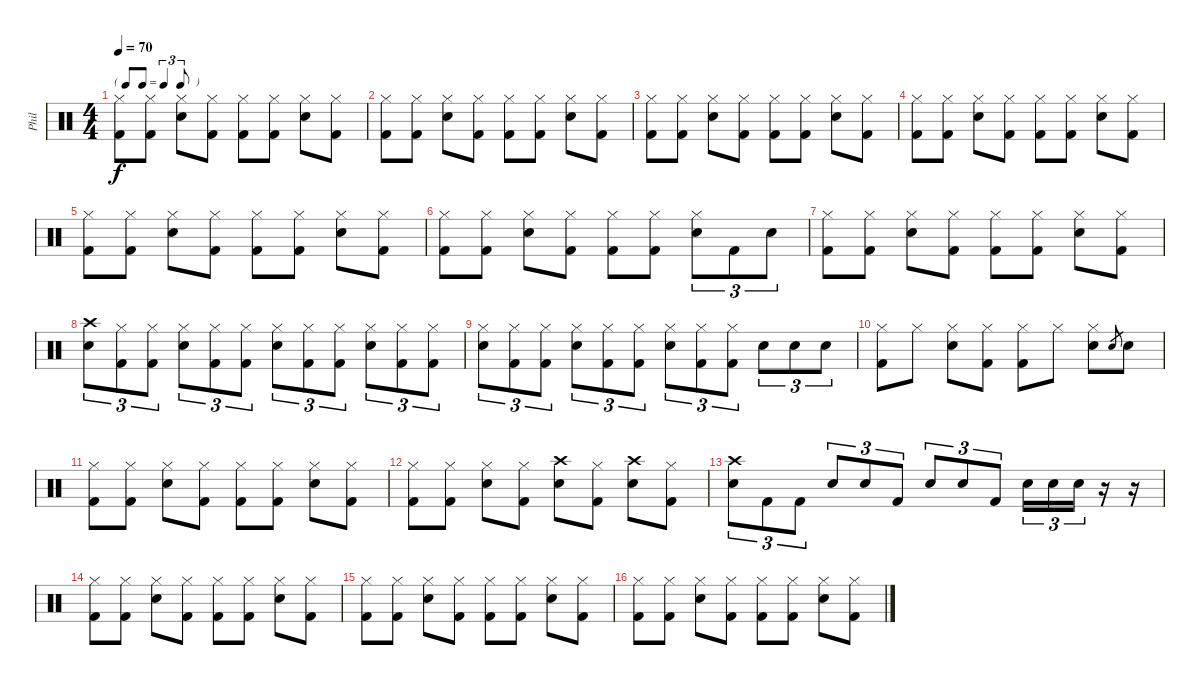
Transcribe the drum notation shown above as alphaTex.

\track ("Phil" "Phil") {instrument percussion}
\staff {score}
\articulation defaults
\ts (4 4)
\tf triplet8th
\tempo 70
\clef neutral
\ks c
("Hi-Hat (closed)" "Kick (hit) 2").8{dy f} ("Hi-Hat (closed)" "Kick (hit) 2").8 ("Hi-Hat (closed)" "Snare (hit) 2").8 ("Hi-Hat (closed)" "Kick (hit) 2").8 ("Hi-Hat (closed)" "Kick (hit) 2").8 ("Hi-Hat (closed)" "Kick (hit) 2").8 ("Hi-Hat (closed)" "Snare (hit) 2").8 ("Hi-Hat (closed)" "Kick (hit) 2").8 |
("Hi-Hat (closed)" "Kick (hit) 2").8 ("Hi-Hat (closed)" "Kick (hit) 2").8 ("Hi-Hat (closed)" "Snare (hit) 2").8 ("Hi-Hat (closed)" "Kick (hit) 2").8 ("Hi-Hat (closed)" "Kick (hit) 2").8 ("Hi-Hat (closed)" "Kick (hit) 2").8 ("Hi-Hat (closed)" "Snare (hit) 2").8 ("Hi-Hat (closed)" "Kick (hit) 2").8 |
("Hi-Hat (closed)" "Kick (hit) 2").8 ("Hi-Hat (closed)" "Kick (hit) 2").8 ("Hi-Hat (closed)" "Snare (hit) 2").8 ("Hi-Hat (closed)" "Kick (hit) 2").8 ("Hi-Hat (closed)" "Kick (hit) 2").8 ("Hi-Hat (closed)" "Kick (hit) 2").8 ("Hi-Hat (closed)" "Snare (hit) 2").8 ("Hi-Hat (closed)" "Kick (hit) 2").8 |
("Hi-Hat (closed)" "Kick (hit) 2").8 ("Hi-Hat (closed)" "Kick (hit) 2").8 ("Hi-Hat (closed)" "Snare (hit) 2").8 ("Hi-Hat (closed)" "Kick (hit) 2").8 ("Hi-Hat (closed)" "Kick (hit) 2").8 ("Hi-Hat (closed)" "Kick (hit) 2").8 ("Hi-Hat (closed)" "Snare (hit) 2").8 ("Hi-Hat (closed)" "Kick (hit) 2").8 |
("Hi-Hat (closed)" "Kick (hit) 2").8 ("Hi-Hat (closed)" "Kick (hit) 2").8 ("Hi-Hat (closed)" "Snare (hit) 2").8 ("Hi-Hat (closed)" "Kick (hit) 2").8 ("Hi-Hat (closed)" "Kick (hit) 2").8 ("Hi-Hat (closed)" "Kick (hit) 2").8 ("Hi-Hat (closed)" "Snare (hit) 2").8 ("Hi-Hat (closed)" "Kick (hit) 2").8 |
("Hi-Hat (closed)" "Kick (hit) 2").8 ("Hi-Hat (closed)" "Kick (hit) 2").8 ("Hi-Hat (closed)" "Snare (hit) 2").8 ("Hi-Hat (closed)" "Kick (hit) 2").8 ("Hi-Hat (closed)" "Kick (hit) 2").8 ("Hi-Hat (closed)" "Kick (hit) 2").8 ("Hi-Hat (closed)" "Snare (hit) 2").8{tu (3 2)} "Kick (hit) 2".8{tu (3 2)} "Snare (hit) 2".8{tu (3 2)} |
("Hi-Hat (closed)" "Kick (hit) 2").8 ("Hi-Hat (closed)" "Kick (hit) 2").8 ("Hi-Hat (closed)" "Snare (hit) 2").8 ("Hi-Hat (closed)" "Kick (hit) 2").8 ("Hi-Hat (closed)" "Kick (hit) 2").8 ("Hi-Hat (closed)" "Kick (hit) 2").8 ("Hi-Hat (closed)" "Snare (hit) 2").8 ("Hi-Hat (closed)" "Kick (hit) 2").8 |
("Crash high (hit)" "Snare (hit) 2").8{tu (3 2)} ("Hi-Hat (closed)" "Kick (hit) 2").8{tu (3 2)} ("Hi-Hat (closed)" "Kick (hit) 2").8{tu (3 2)} ("Hi-Hat (closed)" "Snare (hit) 2").8{tu (3 2)} ("Hi-Hat (closed)" "Kick (hit) 2").8{tu (3 2)} ("Hi-Hat (closed)" "Kick (hit) 2").8{tu (3 2)} ("Hi-Hat (closed)" "Snare (hit) 2").8{tu (3 2)} ("Hi-Hat (closed)" "Kick (hit) 2").8{tu (3 2)} ("Hi-Hat (closed)" "Kick (hit) 2").8{tu (3 2)} ("Hi-Hat (closed)" "Snare (hit) 2").8{tu (3 2)} ("Hi-Hat (closed)" "Kick (hit) 2").8{tu (3 2)} ("Hi-Hat (closed)" "Kick (hit) 2").8{tu (3 2)} |
("Hi-Hat (closed)" "Snare (hit) 2").8{tu (3 2)} ("Hi-Hat (closed)" "Kick (hit) 2").8{tu (3 2)} ("Hi-Hat (closed)" "Kick (hit) 2").8{tu (3 2)} ("Hi-Hat (closed)" "Snare (hit) 2").8{tu (3 2)} ("Hi-Hat (closed)" "Kick (hit) 2").8{tu (3 2)} ("Hi-Hat (closed)" "Kick (hit) 2").8{tu (3 2)} ("Hi-Hat (closed)" "Snare (hit) 2").8{tu (3 2)} ("Hi-Hat (closed)" "Kick (hit) 2").8{tu (3 2)} ("Hi-Hat (closed)" "Kick (hit) 2").8{tu (3 2)} "Snare (hit) 2".8{tu (3 2)} "Snare (hit) 2".8{tu (3 2)} "Snare (hit) 2".8{tu (3 2)} |
("Hi-Hat (closed)" "Kick (hit) 2").8 "Hi-Hat (closed)".8 ("Hi-Hat (closed)" "Snare (hit) 2").8 ("Hi-Hat (closed)" "Kick (hit) 2").8 ("Hi-Hat (closed)" "Kick (hit) 2").8 "Hi-Hat (closed)".8 ("Hi-Hat (closed)" "Snare (hit) 2").8 "Snare (hit) 2".8{gr} "Snare (hit) 2".8 |
("Hi-Hat (closed)" "Kick (hit) 2").8 ("Hi-Hat (closed)" "Kick (hit) 2").8 ("Hi-Hat (closed)" "Snare (hit) 2").8 ("Hi-Hat (closed)" "Kick (hit) 2").8 ("Hi-Hat (closed)" "Kick (hit) 2").8 ("Hi-Hat (closed)" "Kick (hit) 2").8 ("Hi-Hat (closed)" "Snare (hit) 2").8 ("Hi-Hat (closed)" "Kick (hit) 2").8 |
("Hi-Hat (closed)" "Kick (hit) 2").8 ("Hi-Hat (closed)" "Kick (hit) 2").8 ("Hi-Hat (closed)" "Snare (hit) 2").8 ("Hi-Hat (closed)" "Kick (hit) 2").8 ("Crash high (hit)" "Snare (hit) 2").8 ("Hi-Hat (closed)" "Kick (hit) 2").8 ("Crash high (hit)" "Snare (hit) 2").8 ("Hi-Hat (closed)" "Kick (hit) 2").8 |
("Crash high (hit)" "Snare (hit) 2").8{tu (3 2)} "Kick (hit) 2".8{tu (3 2)} "Kick (hit) 2".8{tu (3 2)} "Snare (hit) 2".8{tu (3 2)} "Snare (hit) 2".8{tu (3 2)} "Kick (hit) 2".8{tu (3 2)} "Snare (hit) 2".8{tu (3 2)} "Snare (hit) 2".8{tu (3 2)} "Kick (hit) 2".8{tu (3 2)} "Snare (hit) 2".16{tu (3 2)} "Snare (hit) 2".16{tu (3 2)} "Snare (hit) 2".16{tu (3 2)} r.16 r.16 |
("Hi-Hat (closed)" "Kick (hit) 2").8 ("Hi-Hat (closed)" "Kick (hit) 2").8 ("Hi-Hat (closed)" "Snare (hit) 2").8 ("Hi-Hat (closed)" "Kick (hit) 2").8 ("Hi-Hat (closed)" "Kick (hit) 2").8 ("Hi-Hat (closed)" "Kick (hit) 2").8 ("Hi-Hat (closed)" "Snare (hit) 2").8 ("Hi-Hat (closed)" "Kick (hit) 2").8 |
("Hi-Hat (closed)" "Kick (hit) 2").8 ("Hi-Hat (closed)" "Kick (hit) 2").8 ("Hi-Hat (closed)" "Snare (hit) 2").8 ("Hi-Hat (closed)" "Kick (hit) 2").8 ("Hi-Hat (closed)" "Kick (hit) 2").8 ("Hi-Hat (closed)" "Kick (hit) 2").8 ("Hi-Hat (closed)" "Snare (hit) 2").8 ("Hi-Hat (closed)" "Kick (hit) 2").8 |
("Hi-Hat (closed)" "Kick (hit) 2").8 ("Hi-Hat (closed)" "Kick (hit) 2").8 ("Hi-Hat (closed)" "Snare (hit) 2").8 ("Hi-Hat (closed)" "Kick (hit) 2").8 ("Hi-Hat (closed)" "Kick (hit) 2").8 ("Hi-Hat (closed)" "Kick (hit) 2").8 ("Hi-Hat (closed)" "Snare (hit) 2").8 ("Hi-Hat (closed)" "Kick (hit) 2").8
